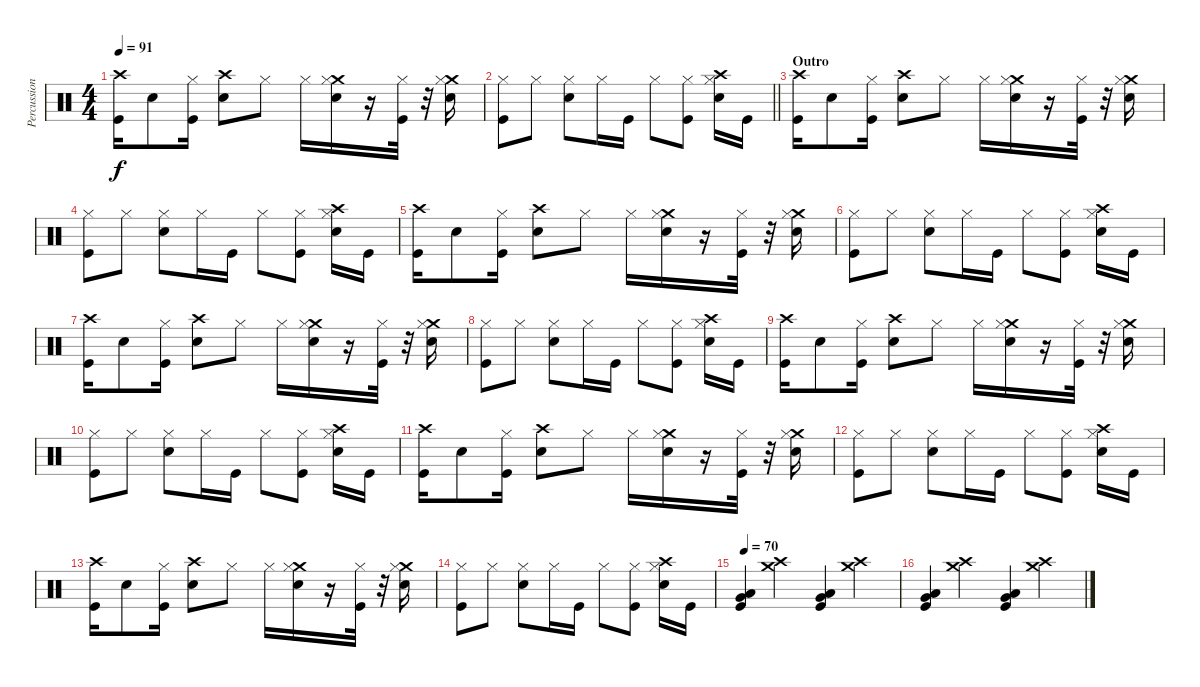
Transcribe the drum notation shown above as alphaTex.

\track ("Percussion" "Percussion") {instrument percussion}
\staff {score}
\articulation defaults
\ts (4 4)
\tempo 91
\clef neutral
\ks c
("Crash high (hit)" "Kick (hit)").16{dy f} "Snare (hit) 2".8 ("Hi-Hat (closed)" "Kick (hit)").16 ("Crash high (hit)" "Snare (hit) 2").8 "Hi-Hat (closed)".8 "Hi-Hat (closed)".16 ("Crash medium (hit)" "Hi-Hat (closed)" "Snare (hit) 2").16 r.16 ("Hi-Hat (closed)" "Kick (hit)").32 r.32 ("Crash medium (hit)" "Hi-Hat (closed)" "Snare (hit) 2").16 |
\barLineRight lightlight
("Hi-Hat (closed)" "Kick (hit)").8 "Hi-Hat (closed)".8 ("Hi-Hat (closed)" "Snare (hit) 2").8 "Hi-Hat (closed)".16 "Kick (hit)".16 "Hi-Hat (closed)".8 ("Hi-Hat (closed)" "Kick (hit)").8 ("Crash high (hit)" "Hi-Hat (closed)" "Snare (hit) 2").16 "Kick (hit)".16 |
\section ("" "Outro")
("Crash high (hit)" "Kick (hit)").16 "Snare (hit) 2".8 ("Hi-Hat (closed)" "Kick (hit)").16 ("Crash high (hit)" "Snare (hit) 2").8 "Hi-Hat (closed)".8 "Hi-Hat (closed)".16 ("Crash medium (hit)" "Hi-Hat (closed)" "Snare (hit) 2").16 r.16 ("Hi-Hat (closed)" "Kick (hit)").32 r.32 ("Crash medium (hit)" "Hi-Hat (closed)" "Snare (hit) 2").16 |
("Hi-Hat (closed)" "Kick (hit)").8 "Hi-Hat (closed)".8 ("Hi-Hat (closed)" "Snare (hit) 2").8 "Hi-Hat (closed)".16 "Kick (hit)".16 "Hi-Hat (closed)".8 ("Hi-Hat (closed)" "Kick (hit)").8 ("Crash high (hit)" "Hi-Hat (closed)" "Snare (hit) 2").16 "Kick (hit)".16 |
("Crash high (hit)" "Kick (hit)").16 "Snare (hit) 2".8 ("Hi-Hat (closed)" "Kick (hit)").16 ("Crash high (hit)" "Snare (hit) 2").8 "Hi-Hat (closed)".8 "Hi-Hat (closed)".16 ("Crash medium (hit)" "Hi-Hat (closed)" "Snare (hit) 2").16 r.16 ("Hi-Hat (closed)" "Kick (hit)").32 r.32 ("Crash medium (hit)" "Hi-Hat (closed)" "Snare (hit) 2").16 |
("Hi-Hat (closed)" "Kick (hit)").8 "Hi-Hat (closed)".8 ("Hi-Hat (closed)" "Snare (hit) 2").8 "Hi-Hat (closed)".16 "Kick (hit)".16 "Hi-Hat (closed)".8 ("Hi-Hat (closed)" "Kick (hit)").8 ("Crash high (hit)" "Hi-Hat (closed)" "Snare (hit) 2").16 "Kick (hit)".16 |
("Crash high (hit)" "Kick (hit)").16 "Snare (hit) 2".8 ("Hi-Hat (closed)" "Kick (hit)").16 ("Crash high (hit)" "Snare (hit) 2").8 "Hi-Hat (closed)".8 "Hi-Hat (closed)".16 ("Crash medium (hit)" "Hi-Hat (closed)" "Snare (hit) 2").16 r.16 ("Hi-Hat (closed)" "Kick (hit)").32 r.32 ("Crash medium (hit)" "Hi-Hat (closed)" "Snare (hit) 2").16 |
("Hi-Hat (closed)" "Kick (hit)").8 "Hi-Hat (closed)".8 ("Hi-Hat (closed)" "Snare (hit) 2").8 "Hi-Hat (closed)".16 "Kick (hit)".16 "Hi-Hat (closed)".8 ("Hi-Hat (closed)" "Kick (hit)").8 ("Crash high (hit)" "Hi-Hat (closed)" "Snare (hit) 2").16 "Kick (hit)".16 |
("Crash high (hit)" "Kick (hit)").16 "Snare (hit) 2".8 ("Hi-Hat (closed)" "Kick (hit)").16 ("Crash high (hit)" "Snare (hit) 2").8 "Hi-Hat (closed)".8 "Hi-Hat (closed)".16 ("Crash medium (hit)" "Hi-Hat (closed)" "Snare (hit) 2").16 r.16 ("Hi-Hat (closed)" "Kick (hit)").32 r.32 ("Crash medium (hit)" "Hi-Hat (closed)" "Snare (hit) 2").16 |
("Hi-Hat (closed)" "Kick (hit)").8 "Hi-Hat (closed)".8 ("Hi-Hat (closed)" "Snare (hit) 2").8 "Hi-Hat (closed)".16 "Kick (hit)".16 "Hi-Hat (closed)".8 ("Hi-Hat (closed)" "Kick (hit)").8 ("Crash high (hit)" "Hi-Hat (closed)" "Snare (hit) 2").16 "Kick (hit)".16 |
("Crash high (hit)" "Kick (hit)").16 "Snare (hit) 2".8 ("Hi-Hat (closed)" "Kick (hit)").16 ("Crash high (hit)" "Snare (hit) 2").8 "Hi-Hat (closed)".8 "Hi-Hat (closed)".16 ("Crash medium (hit)" "Hi-Hat (closed)" "Snare (hit) 2").16 r.16 ("Hi-Hat (closed)" "Kick (hit)").32 r.32 ("Crash medium (hit)" "Hi-Hat (closed)" "Snare (hit) 2").16 |
("Hi-Hat (closed)" "Kick (hit)").8 "Hi-Hat (closed)".8 ("Hi-Hat (closed)" "Snare (hit) 2").8 "Hi-Hat (closed)".16 "Kick (hit)".16 "Hi-Hat (closed)".8 ("Hi-Hat (closed)" "Kick (hit)").8 ("Crash high (hit)" "Hi-Hat (closed)" "Snare (hit) 2").16 "Kick (hit)".16 |
("Crash high (hit)" "Kick (hit)").16 "Snare (hit) 2".8 ("Hi-Hat (closed)" "Kick (hit)").16 ("Crash high (hit)" "Snare (hit) 2").8 "Hi-Hat (closed)".8 "Hi-Hat (closed)".16 ("Crash medium (hit)" "Hi-Hat (closed)" "Snare (hit) 2").16 r.16 ("Hi-Hat (closed)" "Kick (hit)").32 r.32 ("Crash medium (hit)" "Hi-Hat (closed)" "Snare (hit) 2").16 |
("Hi-Hat (closed)" "Kick (hit)").8 "Hi-Hat (closed)".8 ("Hi-Hat (closed)" "Snare (hit) 2").8 "Hi-Hat (closed)".16 "Kick (hit)".16 "Hi-Hat (closed)".8 ("Hi-Hat (closed)" "Kick (hit)").8 ("Crash high (hit)" "Hi-Hat (closed)" "Snare (hit) 2").16 "Kick (hit)".16 |
\tempo 70
("Low Floor Tom (hit)" "Very Low Tom (hit)" "Kick (hit)").4 ("Crash medium (hit)" "Crash high (hit)").4 ("Low Floor Tom (hit)" "Very Low Tom (hit)" "Kick (hit)").4 ("Crash medium (hit)" "Crash high (hit)").4 |
("Low Floor Tom (hit)" "Very Low Tom (hit)" "Kick (hit)").4 ("Crash medium (hit)" "Crash high (hit)").4 ("Low Floor Tom (hit)" "Very Low Tom (hit)" "Kick (hit)").4 ("Crash medium (hit)" "Crash high (hit)").4
